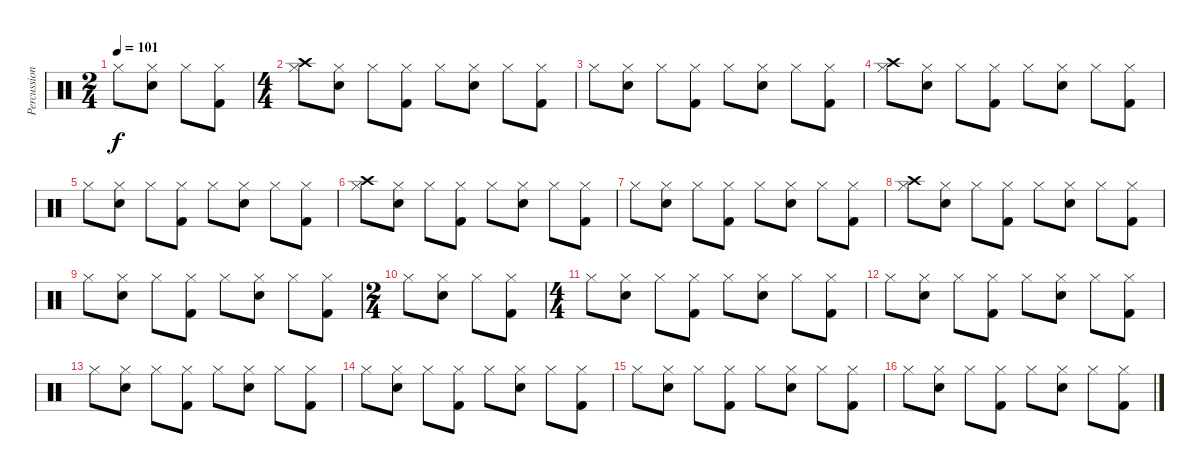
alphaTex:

\track ("Percussions" "Percussion") {instrument percussion}
\staff {score}
\articulation defaults
\ts (2 4)
\tempo 101
\clef neutral
\ks c "Hi-Hat (closed)".8{dy f}
("Hi-Hat (closed)" "Electric Snare (hit)").8 "Hi-Hat (closed)".8 ("Hi-Hat (closed)" "Kick (hit) 2").8 |
\ts (4 4)
("Hi-Hat (closed)" "Crash high (hit)").8 ("Hi-Hat (closed)" "Electric Snare (hit)").8 "Hi-Hat (closed)".8 ("Hi-Hat (closed)" "Kick (hit) 2").8 "Hi-Hat (closed)".8 ("Hi-Hat (closed)" "Electric Snare (hit)").8 "Hi-Hat (closed)".8 ("Hi-Hat (closed)" "Kick (hit) 2").8 |
"Hi-Hat (closed)".8 ("Hi-Hat (closed)" "Electric Snare (hit)").8 "Hi-Hat (closed)".8 ("Hi-Hat (closed)" "Kick (hit) 2").8 "Hi-Hat (closed)".8 ("Hi-Hat (closed)" "Electric Snare (hit)").8 "Hi-Hat (closed)".8 ("Hi-Hat (closed)" "Kick (hit) 2").8 |
("Hi-Hat (closed)" "Crash high (hit)").8 ("Hi-Hat (closed)" "Electric Snare (hit)").8 "Hi-Hat (closed)".8 ("Hi-Hat (closed)" "Kick (hit) 2").8 "Hi-Hat (closed)".8 ("Hi-Hat (closed)" "Electric Snare (hit)").8 "Hi-Hat (closed)".8 ("Hi-Hat (closed)" "Kick (hit) 2").8 |
"Hi-Hat (closed)".8 ("Hi-Hat (closed)" "Electric Snare (hit)").8 "Hi-Hat (closed)".8 ("Hi-Hat (closed)" "Kick (hit) 2").8 "Hi-Hat (closed)".8 ("Hi-Hat (closed)" "Electric Snare (hit)").8 "Hi-Hat (closed)".8 ("Hi-Hat (closed)" "Kick (hit) 2").8 |
("Hi-Hat (closed)" "Crash high (hit)").8 ("Hi-Hat (closed)" "Electric Snare (hit)").8 "Hi-Hat (closed)".8 ("Hi-Hat (closed)" "Kick (hit) 2").8 "Hi-Hat (closed)".8 ("Hi-Hat (closed)" "Electric Snare (hit)").8 "Hi-Hat (closed)".8 ("Hi-Hat (closed)" "Kick (hit) 2").8 |
"Hi-Hat (closed)".8 ("Hi-Hat (closed)" "Electric Snare (hit)").8 "Hi-Hat (closed)".8 ("Hi-Hat (closed)" "Kick (hit) 2").8 "Hi-Hat (closed)".8 ("Hi-Hat (closed)" "Electric Snare (hit)").8 "Hi-Hat (closed)".8 ("Hi-Hat (closed)" "Kick (hit) 2").8 |
("Hi-Hat (closed)" "Crash high (hit)").8 ("Hi-Hat (closed)" "Electric Snare (hit)").8 "Hi-Hat (closed)".8 ("Hi-Hat (closed)" "Kick (hit) 2").8 "Hi-Hat (closed)".8 ("Hi-Hat (closed)" "Electric Snare (hit)").8 "Hi-Hat (closed)".8 ("Hi-Hat (closed)" "Kick (hit) 2").8 |
"Hi-Hat (closed)".8 ("Hi-Hat (closed)" "Electric Snare (hit)").8 "Hi-Hat (closed)".8 ("Hi-Hat (closed)" "Kick (hit) 2").8 "Hi-Hat (closed)".8 ("Hi-Hat (closed)" "Electric Snare (hit)").8 "Hi-Hat (closed)".8 ("Hi-Hat (closed)" "Kick (hit) 2").8 |
\ts (2 4)
"Hi-Hat (closed)".8 ("Hi-Hat (closed)" "Electric Snare (hit)").8 "Hi-Hat (closed)".8 ("Hi-Hat (closed)" "Kick (hit) 2").8 |
\ts (4 4)
"Hi-Hat (closed)".8 ("Hi-Hat (closed)" "Electric Snare (hit)").8 "Hi-Hat (closed)".8 ("Hi-Hat (closed)" "Kick (hit) 2").8 "Hi-Hat (closed)".8 ("Hi-Hat (closed)" "Electric Snare (hit)").8 "Hi-Hat (closed)".8 ("Hi-Hat (closed)" "Kick (hit) 2").8 |
"Hi-Hat (closed)".8 ("Hi-Hat (closed)" "Electric Snare (hit)").8 "Hi-Hat (closed)".8 ("Hi-Hat (closed)" "Kick (hit) 2").8 "Hi-Hat (closed)".8 ("Hi-Hat (closed)" "Electric Snare (hit)").8 "Hi-Hat (closed)".8 ("Hi-Hat (closed)" "Kick (hit) 2").8 |
"Hi-Hat (closed)".8 ("Hi-Hat (closed)" "Electric Snare (hit)").8 "Hi-Hat (closed)".8 ("Hi-Hat (closed)" "Kick (hit) 2").8 "Hi-Hat (closed)".8 ("Hi-Hat (closed)" "Electric Snare (hit)").8 "Hi-Hat (closed)".8 ("Hi-Hat (closed)" "Kick (hit) 2").8 |
"Hi-Hat (closed)".8 ("Hi-Hat (closed)" "Electric Snare (hit)").8 "Hi-Hat (closed)".8 ("Hi-Hat (closed)" "Kick (hit) 2").8 "Hi-Hat (closed)".8 ("Hi-Hat (closed)" "Electric Snare (hit)").8 "Hi-Hat (closed)".8 ("Hi-Hat (closed)" "Kick (hit) 2").8 |
"Hi-Hat (closed)".8 ("Hi-Hat (closed)" "Electric Snare (hit)").8 "Hi-Hat (closed)".8 ("Hi-Hat (closed)" "Kick (hit) 2").8 "Hi-Hat (closed)".8 ("Hi-Hat (closed)" "Electric Snare (hit)").8 "Hi-Hat (closed)".8 ("Hi-Hat (closed)" "Kick (hit) 2").8 |
"Hi-Hat (closed)".8 ("Hi-Hat (closed)" "Electric Snare (hit)").8 "Hi-Hat (closed)".8 ("Hi-Hat (closed)" "Kick (hit) 2").8 "Hi-Hat (closed)".8 ("Hi-Hat (closed)" "Electric Snare (hit)").8 "Hi-Hat (closed)".8 ("Hi-Hat (closed)" "Kick (hit) 2").8
